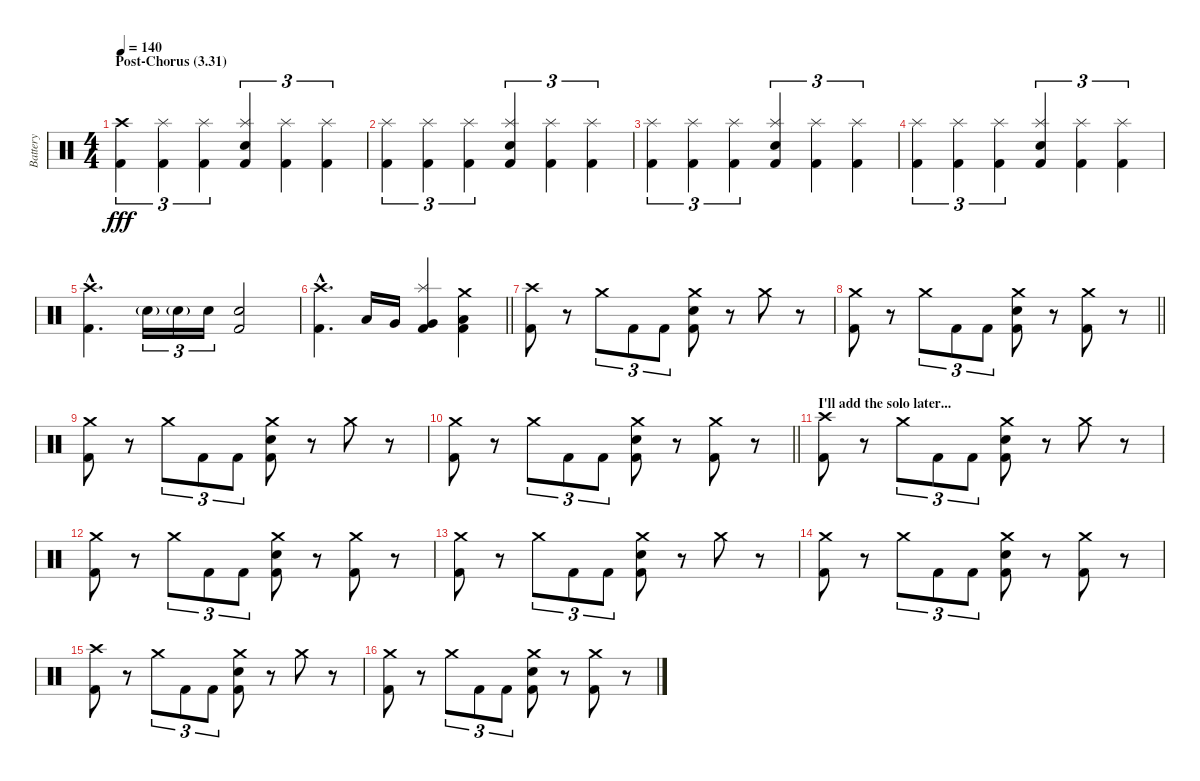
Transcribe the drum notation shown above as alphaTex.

\track ("Battery" "Battery") {instrument percussion}
\staff {score}
\articulation defaults
\ts (4 4)
\section ("" "Post-Chorus (3.31)")
\tempo 140
\clef neutral
\ks c
("Crash high (hit)" "Kick (hit) 2").4{tu (3 2) dy fff} ("Splash (hit)" "Kick (hit) 2").4{tu (3 2)} ("Splash (hit)" "Kick (hit) 2").4{tu (3 2)} ("Splash (hit)" "Electric Snare (hit)" "Kick (hit) 2").4{tu (3 2)} ("Splash (hit)" "Kick (hit) 2").4{tu (3 2)} ("Splash (hit)" "Kick (hit) 2").4{tu (3 2)} |
("Splash (hit)" "Kick (hit) 2").4{tu (3 2)} ("Splash (hit)" "Kick (hit) 2").4{tu (3 2)} ("Splash (hit)" "Kick (hit) 2").4{tu (3 2)} ("Splash (hit)" "Electric Snare (hit)" "Kick (hit) 2").4{tu (3 2)} ("Splash (hit)" "Kick (hit) 2").4{tu (3 2)} ("Splash (hit)" "Kick (hit) 2").4{tu (3 2)} |
("Splash (hit)" "Kick (hit) 2").4{tu (3 2)} ("Splash (hit)" "Kick (hit) 2").4{tu (3 2)} ("Splash (hit)" "Kick (hit) 2").4{tu (3 2)} ("Splash (hit)" "Electric Snare (hit)" "Kick (hit) 2").4{tu (3 2)} ("Splash (hit)" "Kick (hit) 2").4{tu (3 2)} ("Splash (hit)" "Kick (hit) 2").4{tu (3 2)} |
("Splash (hit)" "Kick (hit) 2").4{tu (3 2)} ("Splash (hit)" "Kick (hit) 2").4{tu (3 2)} ("Splash (hit)" "Kick (hit) 2").4{tu (3 2)} ("Splash (hit)" "Electric Snare (hit)" "Kick (hit) 2").4{tu (3 2)} ("Splash (hit)" "Kick (hit) 2").4{tu (3 2)} ("Splash (hit)" "Kick (hit) 2").4{tu (3 2)} |
("Crash high (hit)"{hac} "Kick (hit) 2"{hac}).4{d} "Electric Snare (hit)"{g}.16{tu (3 2)} "Electric Snare (hit)"{g}.16{tu (3 2)} "Electric Snare (hit)".16{tu (3 2)} ("Electric Snare (hit)" "Kick (hit) 2").2 |
\barLineRight lightlight
("Crash high (hit)"{hac} "Kick (hit) 2"{hac}).4{d} "Low Tom (hit)".16 "Very Low Tom (hit)".16 ("Splash (hit)" "Very Low Tom (hit)" "Kick (hit) 2").4 ("Crash medium (hit)" "Low Tom (hit)" "Kick (hit) 2").4 |
\section ("" "")
("Crash high (hit)" "Kick (hit) 2").8 r.8 "Crash medium (hit)".8{tu (3 2)} "Kick (hit) 2".8{tu (3 2)} "Kick (hit) 2".8{tu (3 2)} ("Crash medium (hit)" "Electric Snare (hit)" "Kick (hit) 2").8 r.8 "Crash medium (hit)".8 r.8 |
\barLineRight lightlight
("Crash medium (hit)" "Kick (hit) 2").8 r.8 "Crash medium (hit)".8{tu (3 2)} "Kick (hit) 2".8{tu (3 2)} "Kick (hit) 2".8{tu (3 2)} ("Crash medium (hit)" "Electric Snare (hit)" "Kick (hit) 2").8 r.8 ("Crash medium (hit)" "Kick (hit) 2").8 r.8 |
("Crash medium (hit)" "Kick (hit) 2").8 r.8 "Crash medium (hit)".8{tu (3 2)} "Kick (hit) 2".8{tu (3 2)} "Kick (hit) 2".8{tu (3 2)} ("Crash medium (hit)" "Electric Snare (hit)" "Kick (hit) 2").8 r.8 "Crash medium (hit)".8 r.8 |
\barLineRight lightlight
("Crash medium (hit)" "Kick (hit) 2").8 r.8 "Crash medium (hit)".8{tu (3 2)} "Kick (hit) 2".8{tu (3 2)} "Kick (hit) 2".8{tu (3 2)} ("Crash medium (hit)" "Electric Snare (hit)" "Kick (hit) 2").8 r.8 ("Crash medium (hit)" "Kick (hit) 2").8 r.8 |
\section ("" "I'll add the solo later...")
("Crash high (hit)" "Kick (hit) 2").8 r.8 "Crash medium (hit)".8{tu (3 2)} "Kick (hit) 2".8{tu (3 2)} "Kick (hit) 2".8{tu (3 2)} ("Crash medium (hit)" "Electric Snare (hit)" "Kick (hit) 2").8 r.8 "Crash medium (hit)".8 r.8 |
("Crash medium (hit)" "Kick (hit) 2").8 r.8 "Crash medium (hit)".8{tu (3 2)} "Kick (hit) 2".8{tu (3 2)} "Kick (hit) 2".8{tu (3 2)} ("Crash medium (hit)" "Electric Snare (hit)" "Kick (hit) 2").8 r.8 ("Crash medium (hit)" "Kick (hit) 2").8 r.8 |
("Crash medium (hit)" "Kick (hit) 2").8 r.8 "Crash medium (hit)".8{tu (3 2)} "Kick (hit) 2".8{tu (3 2)} "Kick (hit) 2".8{tu (3 2)} ("Crash medium (hit)" "Electric Snare (hit)" "Kick (hit) 2").8 r.8 "Crash medium (hit)".8 r.8 |
("Crash medium (hit)" "Kick (hit) 2").8 r.8 "Crash medium (hit)".8{tu (3 2)} "Kick (hit) 2".8{tu (3 2)} "Kick (hit) 2".8{tu (3 2)} ("Crash medium (hit)" "Electric Snare (hit)" "Kick (hit) 2").8 r.8 ("Crash medium (hit)" "Kick (hit) 2").8 r.8 |
("Crash high (hit)" "Kick (hit) 2").8 r.8 "Crash medium (hit)".8{tu (3 2)} "Kick (hit) 2".8{tu (3 2)} "Kick (hit) 2".8{tu (3 2)} ("Crash medium (hit)" "Electric Snare (hit)" "Kick (hit) 2").8 r.8 "Crash medium (hit)".8 r.8 |
("Crash medium (hit)" "Kick (hit) 2").8 r.8 "Crash medium (hit)".8{tu (3 2)} "Kick (hit) 2".8{tu (3 2)} "Kick (hit) 2".8{tu (3 2)} ("Crash medium (hit)" "Electric Snare (hit)" "Kick (hit) 2").8 r.8 ("Crash medium (hit)" "Kick (hit) 2").8 r.8
